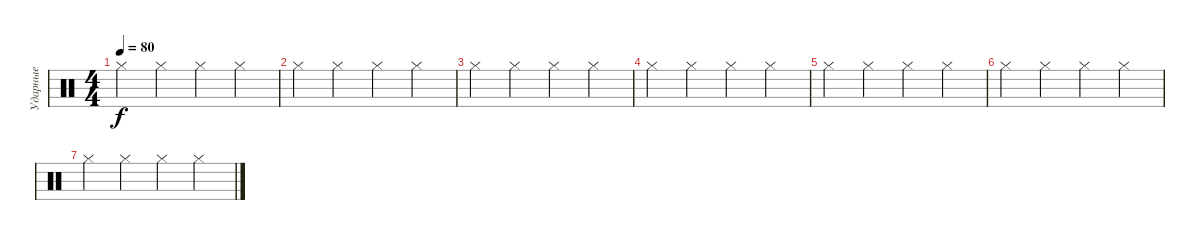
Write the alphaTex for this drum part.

\track ("Ударные" "Ударные") {instrument percussion}
\staff {score}
\articulation defaults
\ts (4 4)
\tempo 80
\clef neutral
\ks c "Hi-Hat (closed)".4{dy f} "Hi-Hat (closed)".4 "Hi-Hat (closed)".4 "Hi-Hat (closed)".4
|
"Hi-Hat (closed)".4 "Hi-Hat (closed)".4 "Hi-Hat (closed)".4 "Hi-Hat (closed)".4 |
"Hi-Hat (closed)".4 "Hi-Hat (closed)".4 "Hi-Hat (closed)".4 "Hi-Hat (closed)".4 |
"Hi-Hat (closed)".4 "Hi-Hat (closed)".4 "Hi-Hat (closed)".4 "Hi-Hat (closed)".4 |
"Hi-Hat (closed)".4 "Hi-Hat (closed)".4 "Hi-Hat (closed)".4 "Hi-Hat (closed)".4 |
"Hi-Hat (closed)".4 "Hi-Hat (closed)".4 "Hi-Hat (closed)".4 "Hi-Hat (closed)".4 |
"Hi-Hat (closed)".4 "Hi-Hat (closed)".4 "Hi-Hat (closed)".4 "Hi-Hat (closed)".4
